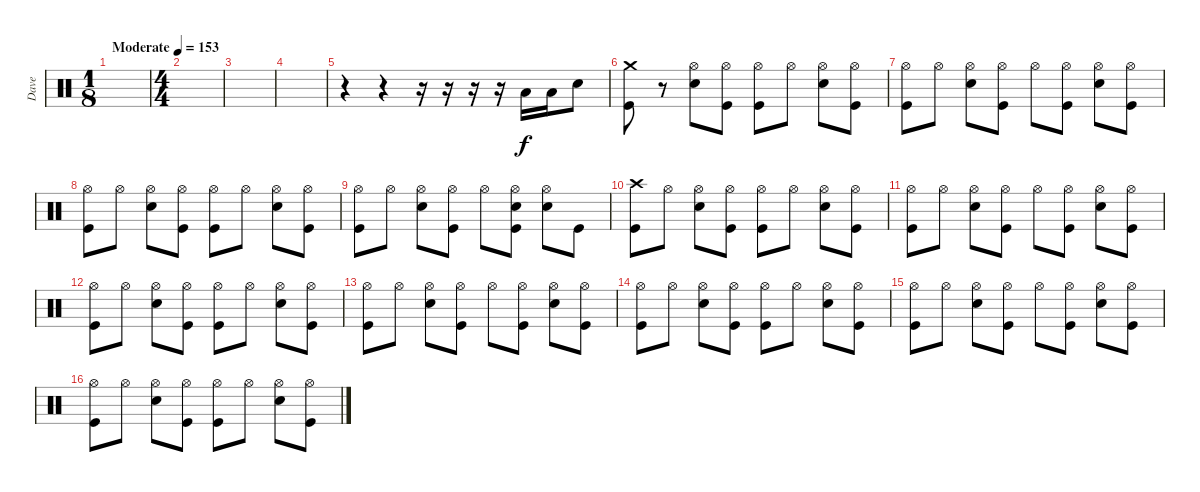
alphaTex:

\track ("Dave" "Dave") {solo instrument percussion}
\staff {score}
\articulation defaults
\ts (1 8)
\tempo (153 "Moderate")
\clef neutral
\ks c
|
\ts (4 4)
|
|
|
r.4 r.4 r.16 r.16 r.16 r.16 "Low Tom (hit)".16 "Low Tom (hit)".16 "Snare (hit) 2".8 |
("Crash medium (hit)" "Kick (hit)").8 r.8 ("Hi-Hat (open)" "Snare (hit) 2").8 ("Hi-Hat (open)" "Kick (hit)").8 ("Hi-Hat (open)" "Kick (hit)").8 "Hi-Hat (open)".8 ("Hi-Hat (open)" "Snare (hit) 2").8 ("Hi-Hat (open)" "Kick (hit)").8 |
("Hi-Hat (open)" "Kick (hit)").8 "Hi-Hat (open)".8 ("Hi-Hat (open)" "Snare (hit) 2").8 ("Hi-Hat (open)" "Kick (hit)").8 "Hi-Hat (open)".8 ("Hi-Hat (open)" "Kick (hit)").8 ("Hi-Hat (open)" "Snare (hit) 2").8 ("Hi-Hat (open)" "Kick (hit)").8 |
("Hi-Hat (open)" "Kick (hit)").8 "Hi-Hat (open)".8 ("Hi-Hat (open)" "Snare (hit) 2").8 ("Hi-Hat (open)" "Kick (hit)").8 ("Hi-Hat (open)" "Kick (hit)").8 "Hi-Hat (open)".8 ("Hi-Hat (open)" "Snare (hit) 2").8 ("Hi-Hat (open)" "Kick (hit)").8 |
("Hi-Hat (open)" "Kick (hit)").8 "Hi-Hat (open)".8 ("Hi-Hat (open)" "Snare (hit) 2").8 ("Hi-Hat (open)" "Kick (hit)").8 "Hi-Hat (open)".8 ("Hi-Hat (open)" "Snare (hit) 2" "Kick (hit)").8 ("Hi-Hat (open)" "Snare (hit) 2").8 "Kick (hit)".8 |
("Crash high (hit)" "Kick (hit)").8 "Hi-Hat (open)".8 ("Hi-Hat (open)" "Snare (hit) 2").8 ("Hi-Hat (open)" "Kick (hit)").8 ("Hi-Hat (open)" "Kick (hit)").8 "Hi-Hat (open)".8 ("Hi-Hat (open)" "Snare (hit) 2").8 ("Hi-Hat (open)" "Kick (hit)").8 |
("Hi-Hat (open)" "Kick (hit)").8 "Hi-Hat (open)".8 ("Hi-Hat (open)" "Snare (hit) 2").8 ("Hi-Hat (open)" "Kick (hit)").8 "Hi-Hat (open)".8 ("Hi-Hat (open)" "Kick (hit)").8 ("Hi-Hat (open)" "Snare (hit) 2").8 ("Hi-Hat (open)" "Kick (hit)").8 |
("Hi-Hat (open)" "Kick (hit)").8 "Hi-Hat (open)".8 ("Hi-Hat (open)" "Snare (hit) 2").8 ("Hi-Hat (open)" "Kick (hit)").8 ("Hi-Hat (open)" "Kick (hit)").8 "Hi-Hat (open)".8 ("Hi-Hat (open)" "Snare (hit) 2").8 ("Hi-Hat (open)" "Kick (hit)").8 |
("Hi-Hat (open)" "Kick (hit)").8 "Hi-Hat (open)".8 ("Hi-Hat (open)" "Snare (hit) 2").8 ("Hi-Hat (open)" "Kick (hit)").8 "Hi-Hat (open)".8 ("Hi-Hat (open)" "Kick (hit)").8 ("Hi-Hat (open)" "Snare (hit) 2").8 ("Hi-Hat (open)" "Kick (hit)").8 |
("Hi-Hat (open)" "Kick (hit)").8 "Hi-Hat (open)".8 ("Hi-Hat (open)" "Snare (hit) 2").8 ("Hi-Hat (open)" "Kick (hit)").8 ("Hi-Hat (open)" "Kick (hit)").8 "Hi-Hat (open)".8 ("Hi-Hat (open)" "Snare (hit) 2").8 ("Hi-Hat (open)" "Kick (hit)").8 |
("Hi-Hat (open)" "Kick (hit)").8 "Hi-Hat (open)".8 ("Hi-Hat (open)" "Snare (hit) 2").8 ("Hi-Hat (open)" "Kick (hit)").8 "Hi-Hat (open)".8 ("Hi-Hat (open)" "Kick (hit)").8 ("Hi-Hat (open)" "Snare (hit) 2").8 ("Hi-Hat (open)" "Kick (hit)").8 |
("Hi-Hat (open)" "Kick (hit)").8 "Hi-Hat (open)".8 ("Hi-Hat (open)" "Snare (hit) 2").8 ("Hi-Hat (open)" "Kick (hit)").8 ("Hi-Hat (open)" "Kick (hit)").8 "Hi-Hat (open)".8 ("Hi-Hat (open)" "Snare (hit) 2").8 ("Hi-Hat (open)" "Kick (hit)").8
